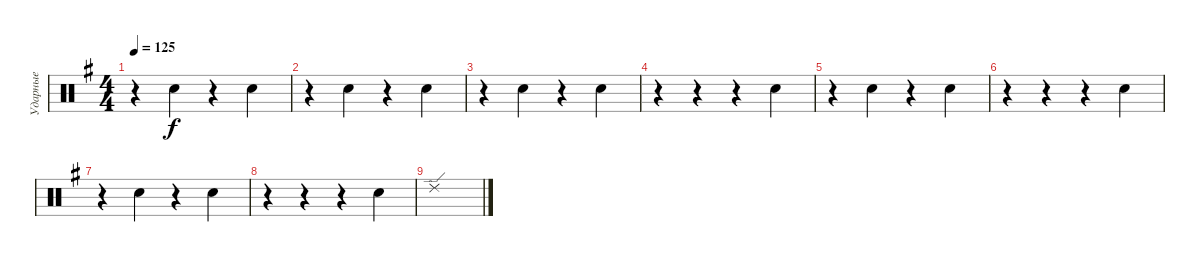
\track ("Ударные" "Ударные") {instrument percussion}
\staff {score}
\articulation defaults
\ts (4 4)
\tempo 125
\clef neutral
\ks g
r.4{dy f} "Snare (hit) 2".4 r.4 "Snare (hit) 2".4 |
r.4 "Snare (hit) 2".4 r.4 "Snare (hit) 2".4 |
r.4 "Snare (hit) 2".4 r.4 "Snare (hit) 2".4 |
r.4 r.4 r.4 "Snare (hit) 2".4 |
r.4 "Snare (hit) 2".4 r.4 "Snare (hit) 2".4 |
r.4 r.4 r.4 "Snare (hit) 2".4 |
r.4 "Snare (hit) 2".4 r.4 "Snare (hit) 2".4 |
r.4 r.4 r.4 "Snare (hit) 2".4 |
"Ride (edge) 2".1
